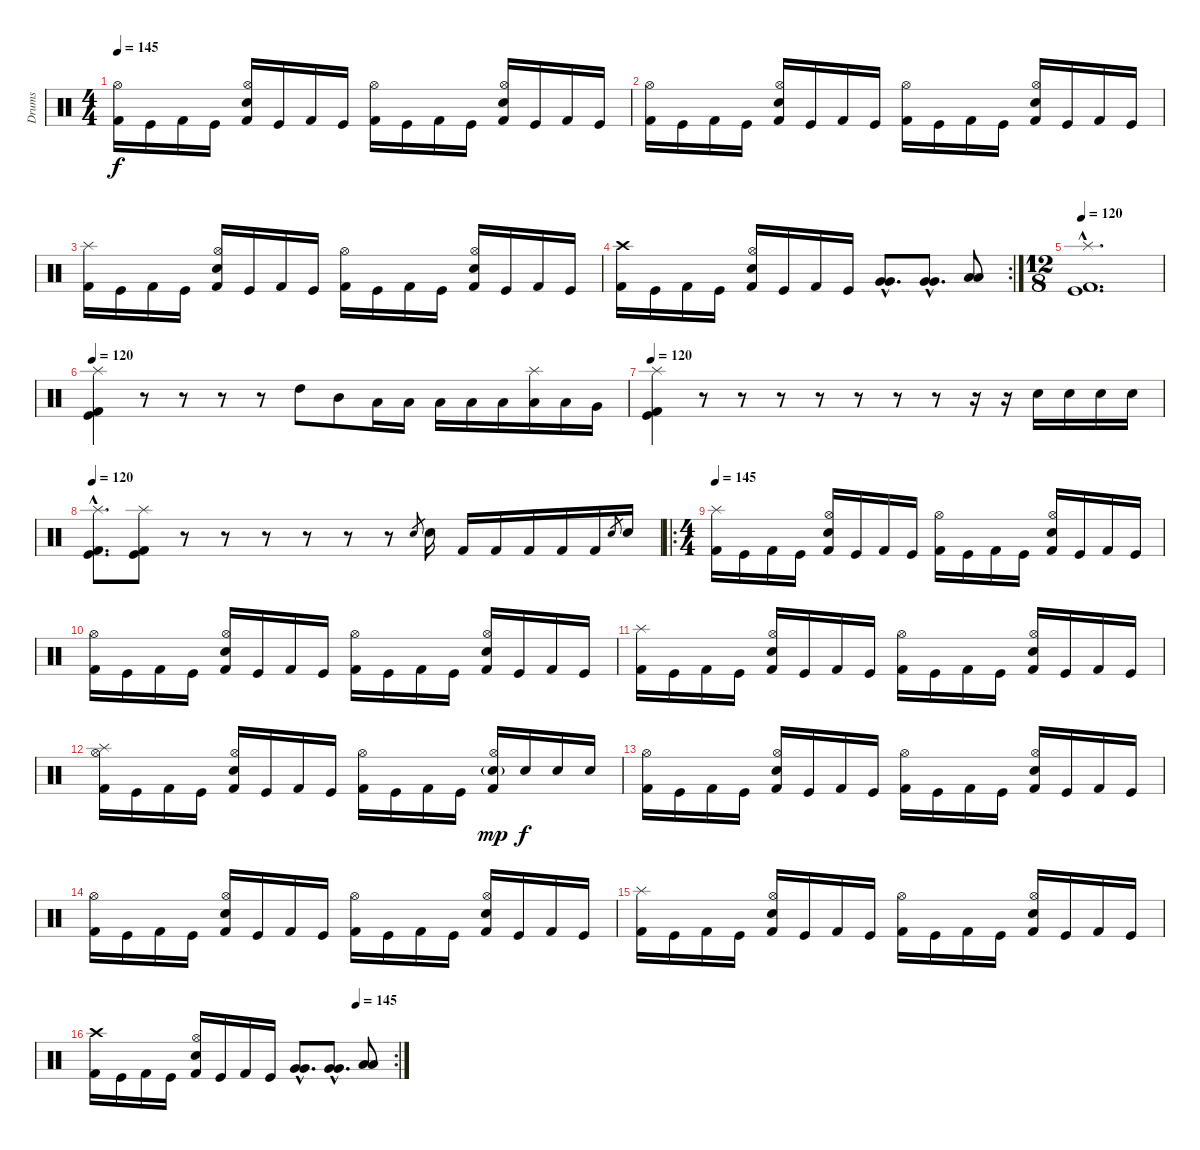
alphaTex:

\track ("Drums" "Drums") {instrument percussion}
\staff {score}
\articulation defaults
\ts (4 4)
\tempo 145
\clef neutral
\ks c
("Kick (hit) 2" "Hi-Hat (open)").16{dy f} "Kick (hit)".16 "Kick (hit) 2".16 "Kick (hit)".16 ("Kick (hit) 2" "Electric Snare (hit)" "Hi-Hat (open)").16 "Kick (hit)".16 "Kick (hit) 2".16 "Kick (hit)".16 ("Kick (hit) 2" "Hi-Hat (open)").16 "Kick (hit)".16 "Kick (hit) 2".16 "Kick (hit)".16 ("Kick (hit) 2" "Electric Snare (hit)" "Hi-Hat (open)").16 "Kick (hit)".16 "Kick (hit) 2".16 "Kick (hit)".16 |
("Kick (hit) 2" "Hi-Hat (open)").16 "Kick (hit)".16 "Kick (hit) 2".16 "Kick (hit)".16 ("Kick (hit) 2" "Electric Snare (hit)" "Hi-Hat (open)").16 "Kick (hit)".16 "Kick (hit) 2".16 "Kick (hit)".16 ("Kick (hit) 2" "Hi-Hat (open)").16 "Kick (hit)".16 "Kick (hit) 2".16 "Kick (hit)".16 ("Kick (hit) 2" "Electric Snare (hit)" "Hi-Hat (open)").16 "Kick (hit)".16 "Kick (hit) 2".16 "Kick (hit)".16 |
("Kick (hit) 2" "Splash (hit)").16 "Kick (hit)".16 "Kick (hit) 2".16 "Kick (hit)".16 ("Kick (hit) 2" "Electric Snare (hit)" "Hi-Hat (open)").16 "Kick (hit)".16 "Kick (hit) 2".16 "Kick (hit)".16 ("Kick (hit) 2" "Hi-Hat (open)").16 "Kick (hit)".16 "Kick (hit) 2".16 "Kick (hit)".16 ("Kick (hit) 2" "Electric Snare (hit)" "Hi-Hat (open)").16 "Kick (hit)".16 "Kick (hit) 2".16 "Kick (hit)".16 |
\rc 2
("Kick (hit) 2" "Crash high (hit)").16 "Kick (hit)".16 "Kick (hit) 2".16 "Kick (hit)".16 ("Kick (hit) 2" "Electric Snare (hit)" "Hi-Hat (open)").16 "Kick (hit)".16 "Kick (hit) 2".16 "Kick (hit)".16 ("Very Low Tom (hit)"{hac} "Very Low Tom (hit)"{hac}).8{d} ("Very Low Tom (hit)"{hac} "Very Low Tom (hit)"{hac}).8{d} ("Low Tom (hit)" "Low Tom (hit)").8 |
\ts (12 8)
\tempo 120
("Kick (hit) 2"{hac} "Kick (hit)"{hac} "Splash (hit)"{hac}).1{d} |
\tempo 120
("Kick (hit) 2" "Kick (hit)" "Splash (hit)").4 r.8 r.8 r.8 r.8 "High Tom (hit)".8 "Mid Tom (hit)".8 "Low Tom (hit)".16 "Low Tom (hit)".16 "Low Tom (hit)".16 "Low Tom (hit)".16 "Low Tom (hit)".16 ("Low Tom (hit)" "Splash (hit)").16 "Low Tom (hit)".16 "Very Low Tom (hit)".16 |
\tempo 120
("Kick (hit) 2" "Kick (hit)" "Splash (hit)").4 r.8 r.8 r.8 r.8 r.8 r.8 r.8 r.16 r.16 "Electric Snare (hit)".16 "Electric Snare (hit)".16 "Electric Snare (hit)".16 "Electric Snare (hit)".16 |
\tempo 120
("Kick (hit) 2"{hac} "Kick (hit)"{hac} "Splash (hit)"{hac}).8{d} ("Kick (hit) 2" "Kick (hit)" "Splash (hit)").8 r.8 r.8 r.8 r.8 r.8 r.8 "Electric Snare (hit)".8{gr} "Electric Snare (hit)".16 "Kick (hit) 2".16 "Kick (hit) 2".16 "Kick (hit) 2".16 "Kick (hit) 2".16 "Kick (hit) 2".16 "Electric Snare (hit)".8{gr} "Electric Snare (hit)".16 |
\ro
\ts (4 4)
\tempo 145
("Kick (hit) 2" "Splash (hit)").16 "Kick (hit)".16 "Kick (hit) 2".16 "Kick (hit)".16 ("Kick (hit) 2" "Electric Snare (hit)" "Hi-Hat (open)").16 "Kick (hit)".16 "Kick (hit) 2".16 "Kick (hit)".16 ("Kick (hit) 2" "Hi-Hat (open)").16 "Kick (hit)".16 "Kick (hit) 2".16 "Kick (hit)".16 ("Kick (hit) 2" "Electric Snare (hit)" "Hi-Hat (open)").16 "Kick (hit)".16 "Kick (hit) 2".16 "Kick (hit)".16 |
("Kick (hit) 2" "Hi-Hat (open)").16 "Kick (hit)".16 "Kick (hit) 2".16 "Kick (hit)".16 ("Kick (hit) 2" "Electric Snare (hit)" "Hi-Hat (open)").16 "Kick (hit)".16 "Kick (hit) 2".16 "Kick (hit)".16 ("Kick (hit) 2" "Hi-Hat (open)").16 "Kick (hit)".16 "Kick (hit) 2".16 "Kick (hit)".16 ("Kick (hit) 2" "Electric Snare (hit)" "Hi-Hat (open)").16 "Kick (hit)".16 "Kick (hit) 2".16 "Kick (hit)".16 |
("Kick (hit) 2" "Splash (hit)").16 "Kick (hit)".16 "Kick (hit) 2".16 "Kick (hit)".16 ("Kick (hit) 2" "Electric Snare (hit)" "Hi-Hat (open)").16 "Kick (hit)".16 "Kick (hit) 2".16 "Kick (hit)".16 ("Kick (hit) 2" "Hi-Hat (open)").16 "Kick (hit)".16 "Kick (hit) 2".16 "Kick (hit)".16 ("Kick (hit) 2" "Electric Snare (hit)" "Hi-Hat (open)").16 "Kick (hit)".16 "Kick (hit) 2".16 "Kick (hit)".16 |
("Kick (hit) 2" "Splash (hit)" "Hi-Hat (open)").16 "Kick (hit)".16 "Kick (hit) 2".16 "Kick (hit)".16 ("Kick (hit) 2" "Electric Snare (hit)" "Hi-Hat (open)").16 "Kick (hit)".16 "Kick (hit) 2".16 "Kick (hit)".16 ("Kick (hit) 2" "Hi-Hat (open)").16 "Kick (hit)".16 "Kick (hit) 2".16 "Kick (hit)".16 ("Kick (hit) 2" "Electric Snare (hit)"{g} "Hi-Hat (open)").16{dy mp} "Electric Snare (hit)".16{dy f} "Electric Snare (hit)".16 "Electric Snare (hit)".16 |
("Kick (hit) 2" "Hi-Hat (open)").16 "Kick (hit)".16 "Kick (hit) 2".16 "Kick (hit)".16 ("Kick (hit) 2" "Electric Snare (hit)" "Hi-Hat (open)").16 "Kick (hit)".16 "Kick (hit) 2".16 "Kick (hit)".16 ("Kick (hit) 2" "Hi-Hat (open)").16 "Kick (hit)".16 "Kick (hit) 2".16 "Kick (hit)".16 ("Kick (hit) 2" "Electric Snare (hit)" "Hi-Hat (open)").16 "Kick (hit)".16 "Kick (hit) 2".16 "Kick (hit)".16 |
("Kick (hit) 2" "Hi-Hat (open)").16 "Kick (hit)".16 "Kick (hit) 2".16 "Kick (hit)".16 ("Kick (hit) 2" "Electric Snare (hit)" "Hi-Hat (open)").16 "Kick (hit)".16 "Kick (hit) 2".16 "Kick (hit)".16 ("Kick (hit) 2" "Hi-Hat (open)").16 "Kick (hit)".16 "Kick (hit) 2".16 "Kick (hit)".16 ("Kick (hit) 2" "Electric Snare (hit)" "Hi-Hat (open)").16 "Kick (hit)".16 "Kick (hit) 2".16 "Kick (hit)".16 |
("Kick (hit) 2" "Splash (hit)").16 "Kick (hit)".16 "Kick (hit) 2".16 "Kick (hit)".16 ("Kick (hit) 2" "Electric Snare (hit)" "Hi-Hat (open)").16 "Kick (hit)".16 "Kick (hit) 2".16 "Kick (hit)".16 ("Kick (hit) 2" "Hi-Hat (open)").16 "Kick (hit)".16 "Kick (hit) 2".16 "Kick (hit)".16 ("Kick (hit) 2" "Electric Snare (hit)" "Hi-Hat (open)").16 "Kick (hit)".16 "Kick (hit) 2".16 "Kick (hit)".16 |
\rc 2
\tempo (145 0.875)
("Kick (hit) 2" "Crash high (hit)").16 "Kick (hit)".16 "Kick (hit) 2".16 "Kick (hit)".16 ("Kick (hit) 2" "Electric Snare (hit)" "Hi-Hat (open)").16 "Kick (hit)".16 "Kick (hit) 2".16 "Kick (hit)".16 ("Very Low Tom (hit)"{hac} "Very Low Tom (hit)"{hac}).8{d} ("Very Low Tom (hit)"{hac} "Very Low Tom (hit)"{hac}).8{d} ("Low Tom (hit)" "Low Tom (hit)").8
